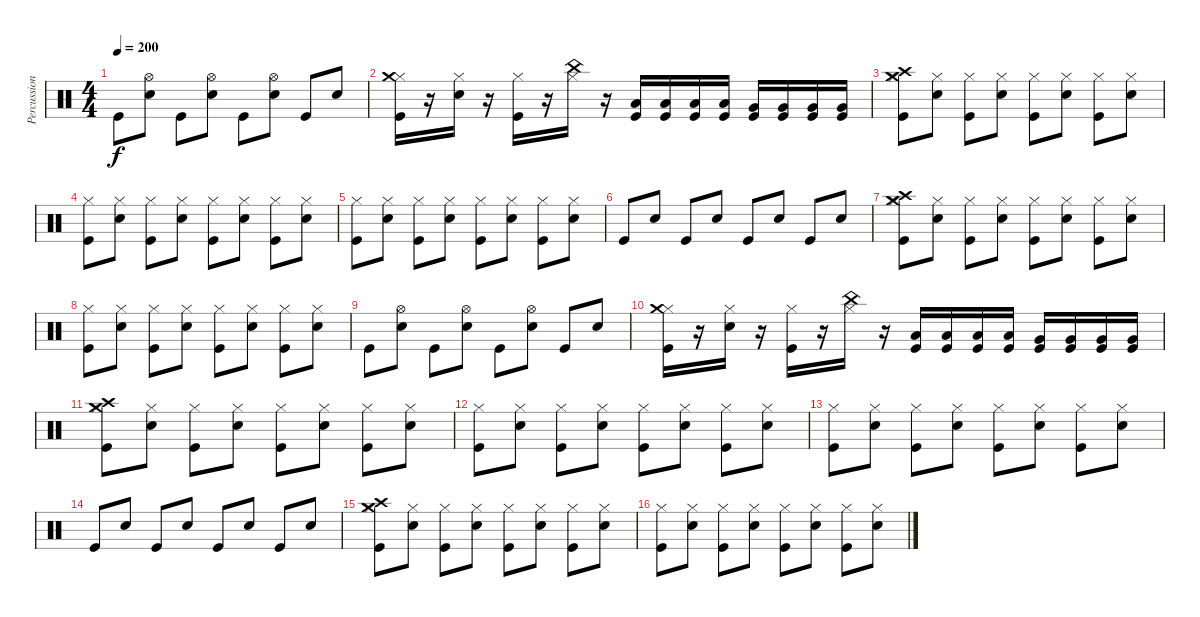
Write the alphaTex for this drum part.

\track ("Percussion" "Percussion") {instrument percussion}
\staff {score}
\articulation defaults
\ts (4 4)
\tempo 200
\clef neutral
\ks c "Kick (hit)".8{dy f}
("Electric Snare (hit)" "Hi-Hat (open)").8 "Kick (hit)".8 ("Electric Snare (hit)" "Hi-Hat (open)").8 "Kick (hit)".8 ("Electric Snare (hit)" "Hi-Hat (open)").8 "Kick (hit)".8 "Electric Snare (hit)".8 |
("Kick (hit)" "Hi-Hat (closed)" "Crash medium (hit)").16 r.16 ("Electric Snare (hit)" "Hi-Hat (closed)").16 r.16 ("Kick (hit)" "Hi-Hat (closed)").16 r.16 ("China (hit)" "Hi-Hat (closed)").16 r.16 ("Kick (hit)" "Low Tom (hit)").16 ("Kick (hit)" "Low Tom (hit)").16 ("Kick (hit)" "Low Tom (hit)").16 ("Kick (hit)" "Low Tom (hit)").16 ("Kick (hit)" "Very Low Tom (hit)").16 ("Kick (hit)" "Very Low Tom (hit)").16 ("Kick (hit)" "Very Low Tom (hit)").16 ("Kick (hit)" "Very Low Tom (hit)").16 |
("Kick (hit)" "Hi-Hat (closed)" "Crash high (hit)" "Crash medium (hit)").8 ("Electric Snare (hit)" "Hi-Hat (closed)").8 ("Kick (hit)" "Hi-Hat (closed)").8 ("Electric Snare (hit)" "Hi-Hat (closed)").8 ("Kick (hit)" "Hi-Hat (closed)").8 ("Electric Snare (hit)" "Hi-Hat (closed)").8 ("Kick (hit)" "Hi-Hat (closed)").8 ("Electric Snare (hit)" "Hi-Hat (closed)").8 |
("Kick (hit)" "Hi-Hat (closed)").8 ("Electric Snare (hit)" "Hi-Hat (closed)").8 ("Kick (hit)" "Hi-Hat (closed)").8 ("Electric Snare (hit)" "Hi-Hat (closed)").8 ("Kick (hit)" "Hi-Hat (closed)").8 ("Electric Snare (hit)" "Hi-Hat (closed)").8 ("Kick (hit)" "Hi-Hat (closed)").8 ("Electric Snare (hit)" "Hi-Hat (closed)").8 |
("Kick (hit)" "Hi-Hat (closed)").8 ("Electric Snare (hit)" "Hi-Hat (closed)").8 ("Kick (hit)" "Hi-Hat (closed)").8 ("Electric Snare (hit)" "Hi-Hat (closed)").8 ("Kick (hit)" "Hi-Hat (closed)").8 ("Electric Snare (hit)" "Hi-Hat (closed)").8 ("Kick (hit)" "Hi-Hat (closed)").8 ("Electric Snare (hit)" "Hi-Hat (closed)").8 |
"Kick (hit)".8 "Electric Snare (hit)".8 "Kick (hit)".8 "Electric Snare (hit)".8 "Kick (hit)".8 "Electric Snare (hit)".8 "Kick (hit)".8 "Electric Snare (hit)".8 |
("Kick (hit)" "Hi-Hat (closed)" "Crash high (hit)" "Crash medium (hit)").8 ("Electric Snare (hit)" "Hi-Hat (closed)").8 ("Kick (hit)" "Hi-Hat (closed)").8 ("Electric Snare (hit)" "Hi-Hat (closed)").8 ("Kick (hit)" "Hi-Hat (closed)").8 ("Electric Snare (hit)" "Hi-Hat (closed)").8 ("Kick (hit)" "Hi-Hat (closed)").8 ("Electric Snare (hit)" "Hi-Hat (closed)").8 |
("Kick (hit)" "Hi-Hat (closed)").8 ("Electric Snare (hit)" "Hi-Hat (closed)").8 ("Kick (hit)" "Hi-Hat (closed)").8 ("Electric Snare (hit)" "Hi-Hat (closed)").8 ("Kick (hit)" "Hi-Hat (closed)").8 ("Electric Snare (hit)" "Hi-Hat (closed)").8 ("Kick (hit)" "Hi-Hat (closed)").8 ("Electric Snare (hit)" "Hi-Hat (closed)").8 |
"Kick (hit)".8 ("Electric Snare (hit)" "Hi-Hat (open)").8 "Kick (hit)".8 ("Electric Snare (hit)" "Hi-Hat (open)").8 "Kick (hit)".8 ("Electric Snare (hit)" "Hi-Hat (open)").8 "Kick (hit)".8 "Electric Snare (hit)".8 |
("Kick (hit)" "Hi-Hat (closed)" "Crash medium (hit)").16 r.16 ("Electric Snare (hit)" "Hi-Hat (closed)").16 r.16 ("Kick (hit)" "Hi-Hat (closed)").16 r.16 ("China (hit)" "Hi-Hat (closed)").16 r.16 ("Kick (hit)" "Low Tom (hit)").16 ("Kick (hit)" "Low Tom (hit)").16 ("Kick (hit)" "Low Tom (hit)").16 ("Kick (hit)" "Low Tom (hit)").16 ("Kick (hit)" "Very Low Tom (hit)").16 ("Kick (hit)" "Very Low Tom (hit)").16 ("Kick (hit)" "Very Low Tom (hit)").16 ("Kick (hit)" "Very Low Tom (hit)").16 |
("Kick (hit)" "Hi-Hat (closed)" "Crash high (hit)" "Crash medium (hit)").8 ("Electric Snare (hit)" "Hi-Hat (closed)").8 ("Kick (hit)" "Hi-Hat (closed)").8 ("Electric Snare (hit)" "Hi-Hat (closed)").8 ("Kick (hit)" "Hi-Hat (closed)").8 ("Electric Snare (hit)" "Hi-Hat (closed)").8 ("Kick (hit)" "Hi-Hat (closed)").8 ("Electric Snare (hit)" "Hi-Hat (closed)").8 |
("Kick (hit)" "Hi-Hat (closed)").8 ("Electric Snare (hit)" "Hi-Hat (closed)").8 ("Kick (hit)" "Hi-Hat (closed)").8 ("Electric Snare (hit)" "Hi-Hat (closed)").8 ("Kick (hit)" "Hi-Hat (closed)").8 ("Electric Snare (hit)" "Hi-Hat (closed)").8 ("Kick (hit)" "Hi-Hat (closed)").8 ("Electric Snare (hit)" "Hi-Hat (closed)").8 |
("Kick (hit)" "Hi-Hat (closed)").8 ("Electric Snare (hit)" "Hi-Hat (closed)").8 ("Kick (hit)" "Hi-Hat (closed)").8 ("Electric Snare (hit)" "Hi-Hat (closed)").8 ("Kick (hit)" "Hi-Hat (closed)").8 ("Electric Snare (hit)" "Hi-Hat (closed)").8 ("Kick (hit)" "Hi-Hat (closed)").8 ("Electric Snare (hit)" "Hi-Hat (closed)").8 |
"Kick (hit)".8 "Electric Snare (hit)".8 "Kick (hit)".8 "Electric Snare (hit)".8 "Kick (hit)".8 "Electric Snare (hit)".8 "Kick (hit)".8 "Electric Snare (hit)".8 |
("Kick (hit)" "Hi-Hat (closed)" "Crash high (hit)" "Crash medium (hit)").8 ("Electric Snare (hit)" "Hi-Hat (closed)").8 ("Kick (hit)" "Hi-Hat (closed)").8 ("Electric Snare (hit)" "Hi-Hat (closed)").8 ("Kick (hit)" "Hi-Hat (closed)").8 ("Electric Snare (hit)" "Hi-Hat (closed)").8 ("Kick (hit)" "Hi-Hat (closed)").8 ("Electric Snare (hit)" "Hi-Hat (closed)").8 |
("Kick (hit)" "Hi-Hat (closed)").8 ("Electric Snare (hit)" "Hi-Hat (closed)").8 ("Kick (hit)" "Hi-Hat (closed)").8 ("Electric Snare (hit)" "Hi-Hat (closed)").8 ("Kick (hit)" "Hi-Hat (closed)").8 ("Electric Snare (hit)" "Hi-Hat (closed)").8 ("Kick (hit)" "Hi-Hat (closed)").8 ("Electric Snare (hit)" "Hi-Hat (closed)").8
